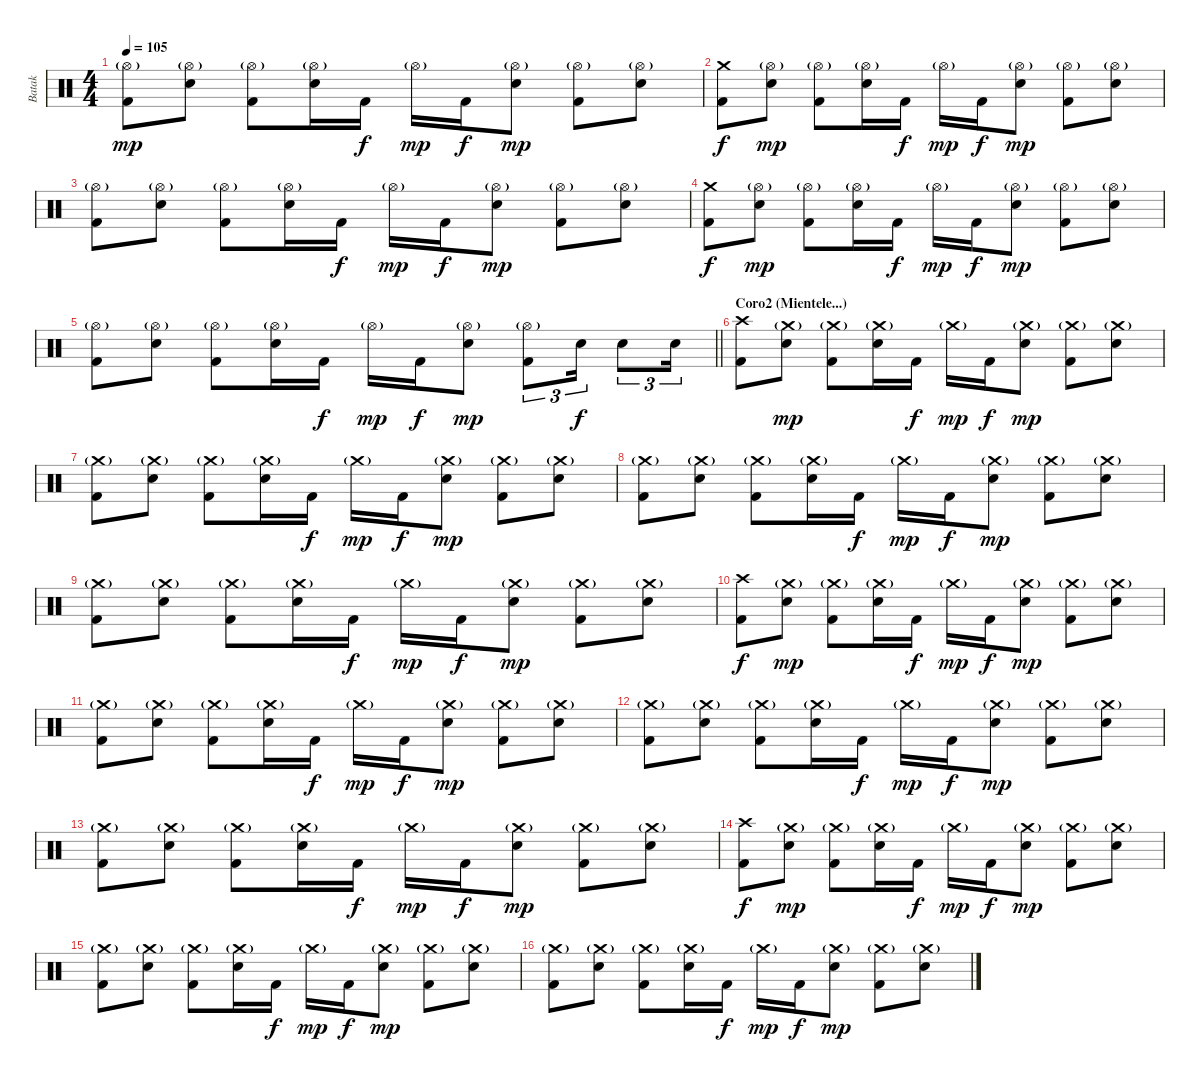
\track ("Batak" "Batak") {instrument percussion bank 7}
\staff {score}
\articulation defaults
\ts (4 4)
\tempo 105
\clef neutral
\ks c
("Hi-Hat (open)"{g} "Kick (hit) 2").8{dy mp} ("Hi-Hat (open)"{g} "Electric Snare (hit)").8 ("Hi-Hat (open)"{g} "Kick (hit) 2").8 ("Hi-Hat (open)"{g} "Electric Snare (hit)").16 "Kick (hit) 2".16{dy f} "Hi-Hat (open)"{g}.16{dy mp} "Kick (hit) 2".16{dy f} ("Hi-Hat (open)"{g} "Electric Snare (hit)").8{dy mp} ("Hi-Hat (open)"{g} "Kick (hit) 2").8 ("Hi-Hat (open)"{g} "Electric Snare (hit)").8 |
("Crash medium (hit)" "Kick (hit) 2").8{dy f} ("Hi-Hat (open)"{g} "Electric Snare (hit)").8{dy mp} ("Hi-Hat (open)"{g} "Kick (hit) 2").8 ("Hi-Hat (open)"{g} "Electric Snare (hit)").16 "Kick (hit) 2".16{dy f} "Hi-Hat (open)"{g}.16{dy mp} "Kick (hit) 2".16{dy f} ("Hi-Hat (open)"{g} "Electric Snare (hit)").8{dy mp} ("Hi-Hat (open)"{g} "Kick (hit) 2").8 ("Hi-Hat (open)"{g} "Electric Snare (hit)").8 |
("Hi-Hat (open)"{g} "Kick (hit) 2").8 ("Hi-Hat (open)"{g} "Electric Snare (hit)").8 ("Hi-Hat (open)"{g} "Kick (hit) 2").8 ("Hi-Hat (open)"{g} "Electric Snare (hit)").16 "Kick (hit) 2".16{dy f} "Hi-Hat (open)"{g}.16{dy mp} "Kick (hit) 2".16{dy f} ("Hi-Hat (open)"{g} "Electric Snare (hit)").8{dy mp} ("Hi-Hat (open)"{g} "Kick (hit) 2").8 ("Hi-Hat (open)"{g} "Electric Snare (hit)").8 |
("Crash medium (hit)" "Kick (hit) 2").8{dy f} ("Hi-Hat (open)"{g} "Electric Snare (hit)").8{dy mp} ("Hi-Hat (open)"{g} "Kick (hit) 2").8 ("Hi-Hat (open)"{g} "Electric Snare (hit)").16 "Kick (hit) 2".16{dy f} "Hi-Hat (open)"{g}.16{dy mp} "Kick (hit) 2".16{dy f} ("Hi-Hat (open)"{g} "Electric Snare (hit)").8{dy mp} ("Hi-Hat (open)"{g} "Kick (hit) 2").8 ("Hi-Hat (open)"{g} "Electric Snare (hit)").8 |
\barLineRight lightlight
("Hi-Hat (open)"{g} "Kick (hit) 2").8 ("Hi-Hat (open)"{g} "Electric Snare (hit)").8 ("Hi-Hat (open)"{g} "Kick (hit) 2").8 ("Hi-Hat (open)"{g} "Electric Snare (hit)").16 "Kick (hit) 2".16{dy f} "Hi-Hat (open)"{g}.16{dy mp} "Kick (hit) 2".16{dy f} ("Hi-Hat (open)"{g} "Electric Snare (hit)").8{dy mp} ("Hi-Hat (open)"{g} "Kick (hit) 2").8{tu (3 2)} "Electric Snare (hit)".16{tu (3 2) dy f} "Electric Snare (hit)".8{tu (3 2)} "Electric Snare (hit)".16{tu (3 2)} |
\section ("" "Coro2 (Mientele...)")
("Crash high (hit)" "Kick (hit) 2").8 ("Crash medium (hit)"{g} "Electric Snare (hit)").8{dy mp} ("Crash medium (hit)"{g} "Kick (hit) 2").8 ("Crash medium (hit)"{g} "Electric Snare (hit)").16 "Kick (hit) 2".16{dy f} "Crash medium (hit)"{g}.16{dy mp} "Kick (hit) 2".16{dy f} ("Crash medium (hit)"{g} "Electric Snare (hit)").8{dy mp} ("Crash medium (hit)"{g} "Kick (hit) 2").8 ("Crash medium (hit)"{g} "Electric Snare (hit)").8 |
("Crash medium (hit)"{g} "Kick (hit) 2").8 ("Crash medium (hit)"{g} "Electric Snare (hit)").8 ("Crash medium (hit)"{g} "Kick (hit) 2").8 ("Crash medium (hit)"{g} "Electric Snare (hit)").16 "Kick (hit) 2".16{dy f} "Crash medium (hit)"{g}.16{dy mp} "Kick (hit) 2".16{dy f} ("Crash medium (hit)"{g} "Electric Snare (hit)").8{dy mp} ("Crash medium (hit)"{g} "Kick (hit) 2").8 ("Crash medium (hit)"{g} "Electric Snare (hit)").8 |
("Crash medium (hit)"{g} "Kick (hit) 2").8 ("Crash medium (hit)"{g} "Electric Snare (hit)").8 ("Crash medium (hit)"{g} "Kick (hit) 2").8 ("Crash medium (hit)"{g} "Electric Snare (hit)").16 "Kick (hit) 2".16{dy f} "Crash medium (hit)"{g}.16{dy mp} "Kick (hit) 2".16{dy f} ("Crash medium (hit)"{g} "Electric Snare (hit)").8{dy mp} ("Crash medium (hit)"{g} "Kick (hit) 2").8 ("Crash medium (hit)"{g} "Electric Snare (hit)").8 |
("Crash medium (hit)"{g} "Kick (hit) 2").8 ("Crash medium (hit)"{g} "Electric Snare (hit)").8 ("Crash medium (hit)"{g} "Kick (hit) 2").8 ("Crash medium (hit)"{g} "Electric Snare (hit)").16 "Kick (hit) 2".16{dy f} "Crash medium (hit)"{g}.16{dy mp} "Kick (hit) 2".16{dy f} ("Crash medium (hit)"{g} "Electric Snare (hit)").8{dy mp} ("Crash medium (hit)"{g} "Kick (hit) 2").8 ("Crash medium (hit)"{g} "Electric Snare (hit)").8 |
("Crash high (hit)" "Kick (hit) 2").8{dy f} ("Crash medium (hit)"{g} "Electric Snare (hit)").8{dy mp} ("Crash medium (hit)"{g} "Kick (hit) 2").8 ("Crash medium (hit)"{g} "Electric Snare (hit)").16 "Kick (hit) 2".16{dy f} "Crash medium (hit)"{g}.16{dy mp} "Kick (hit) 2".16{dy f} ("Crash medium (hit)"{g} "Electric Snare (hit)").8{dy mp} ("Crash medium (hit)"{g} "Kick (hit) 2").8 ("Crash medium (hit)"{g} "Electric Snare (hit)").8 |
("Crash medium (hit)"{g} "Kick (hit) 2").8 ("Crash medium (hit)"{g} "Electric Snare (hit)").8 ("Crash medium (hit)"{g} "Kick (hit) 2").8 ("Crash medium (hit)"{g} "Electric Snare (hit)").16 "Kick (hit) 2".16{dy f} "Crash medium (hit)"{g}.16{dy mp} "Kick (hit) 2".16{dy f} ("Crash medium (hit)"{g} "Electric Snare (hit)").8{dy mp} ("Crash medium (hit)"{g} "Kick (hit) 2").8 ("Crash medium (hit)"{g} "Electric Snare (hit)").8 |
("Crash medium (hit)"{g} "Kick (hit) 2").8 ("Crash medium (hit)"{g} "Electric Snare (hit)").8 ("Crash medium (hit)"{g} "Kick (hit) 2").8 ("Crash medium (hit)"{g} "Electric Snare (hit)").16 "Kick (hit) 2".16{dy f} "Crash medium (hit)"{g}.16{dy mp} "Kick (hit) 2".16{dy f} ("Crash medium (hit)"{g} "Electric Snare (hit)").8{dy mp} ("Crash medium (hit)"{g} "Kick (hit) 2").8 ("Crash medium (hit)"{g} "Electric Snare (hit)").8 |
("Crash medium (hit)"{g} "Kick (hit) 2").8 ("Crash medium (hit)"{g} "Electric Snare (hit)").8 ("Crash medium (hit)"{g} "Kick (hit) 2").8 ("Crash medium (hit)"{g} "Electric Snare (hit)").16 "Kick (hit) 2".16{dy f} "Crash medium (hit)"{g}.16{dy mp} "Kick (hit) 2".16{dy f} ("Crash medium (hit)"{g} "Electric Snare (hit)").8{dy mp} ("Crash medium (hit)"{g} "Kick (hit) 2").8 ("Crash medium (hit)"{g} "Electric Snare (hit)").8 |
("Crash high (hit)" "Kick (hit) 2").8{dy f} ("Crash medium (hit)"{g} "Electric Snare (hit)").8{dy mp} ("Crash medium (hit)"{g} "Kick (hit) 2").8 ("Crash medium (hit)"{g} "Electric Snare (hit)").16 "Kick (hit) 2".16{dy f} "Crash medium (hit)"{g}.16{dy mp} "Kick (hit) 2".16{dy f} ("Crash medium (hit)"{g} "Electric Snare (hit)").8{dy mp} ("Crash medium (hit)"{g} "Kick (hit) 2").8 ("Crash medium (hit)"{g} "Electric Snare (hit)").8 |
("Crash medium (hit)"{g} "Kick (hit) 2").8 ("Crash medium (hit)"{g} "Electric Snare (hit)").8 ("Crash medium (hit)"{g} "Kick (hit) 2").8 ("Crash medium (hit)"{g} "Electric Snare (hit)").16 "Kick (hit) 2".16{dy f} "Crash medium (hit)"{g}.16{dy mp} "Kick (hit) 2".16{dy f} ("Crash medium (hit)"{g} "Electric Snare (hit)").8{dy mp} ("Crash medium (hit)"{g} "Kick (hit) 2").8 ("Crash medium (hit)"{g} "Electric Snare (hit)").8 |
("Crash medium (hit)"{g} "Kick (hit) 2").8 ("Crash medium (hit)"{g} "Electric Snare (hit)").8 ("Crash medium (hit)"{g} "Kick (hit) 2").8 ("Crash medium (hit)"{g} "Electric Snare (hit)").16 "Kick (hit) 2".16{dy f} "Crash medium (hit)"{g}.16{dy mp} "Kick (hit) 2".16{dy f} ("Crash medium (hit)"{g} "Electric Snare (hit)").8{dy mp} ("Crash medium (hit)"{g} "Kick (hit) 2").8 ("Crash medium (hit)"{g} "Electric Snare (hit)").8
